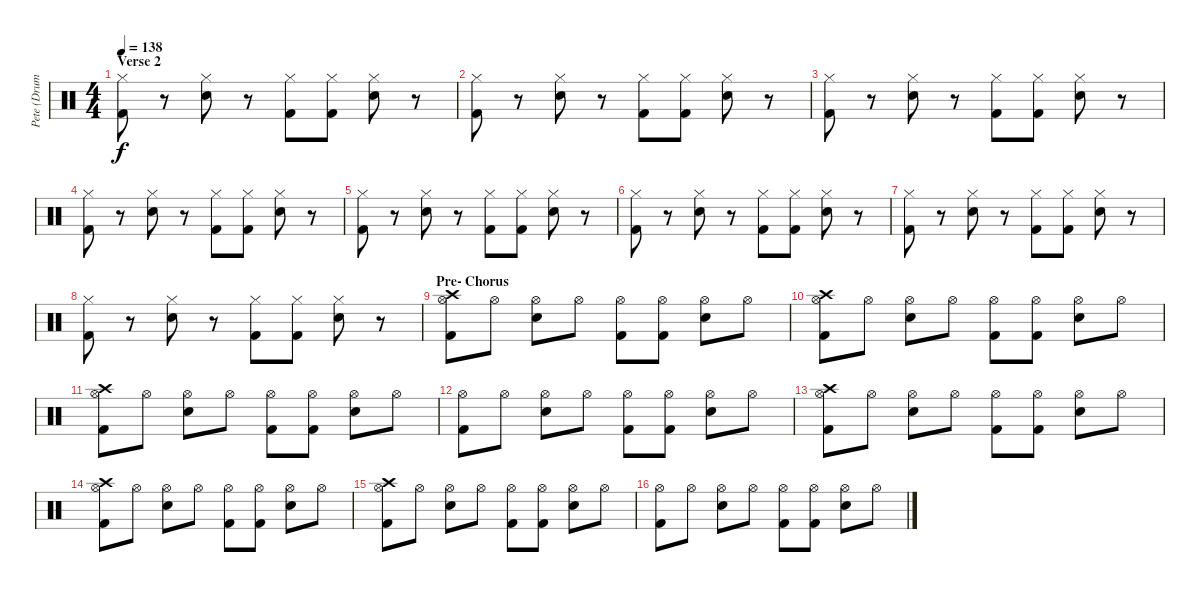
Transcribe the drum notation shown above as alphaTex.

\track ("Pete (Drums)" "Pete (Drum") {instrument percussion}
\staff {score}
\articulation defaults
\ts (4 4)
\section ("" "Verse 2")
\tempo 138
\clef neutral
\ks c
("Hi-Hat (closed)" "Kick (hit) 2").8{dy f} r.8 ("Hi-Hat (closed)" "Snare (hit) 2").8 r.8 ("Hi-Hat (closed)" "Kick (hit) 2").8 ("Hi-Hat (closed)" "Kick (hit) 2").8 ("Hi-Hat (closed)" "Snare (hit) 2").8 r.8 |
("Hi-Hat (closed)" "Kick (hit) 2").8 r.8 ("Hi-Hat (closed)" "Snare (hit) 2").8 r.8 ("Hi-Hat (closed)" "Kick (hit) 2").8 ("Hi-Hat (closed)" "Kick (hit) 2").8 ("Hi-Hat (closed)" "Snare (hit) 2").8 r.8 |
("Hi-Hat (closed)" "Kick (hit) 2").8 r.8 ("Hi-Hat (closed)" "Snare (hit) 2").8 r.8 ("Hi-Hat (closed)" "Kick (hit) 2").8 ("Hi-Hat (closed)" "Kick (hit) 2").8 ("Hi-Hat (closed)" "Snare (hit) 2").8 r.8 |
("Hi-Hat (closed)" "Kick (hit) 2").8 r.8 ("Hi-Hat (closed)" "Snare (hit) 2").8 r.8 ("Hi-Hat (closed)" "Kick (hit) 2").8 ("Hi-Hat (closed)" "Kick (hit) 2").8 ("Hi-Hat (closed)" "Snare (hit) 2").8 r.8 |
("Hi-Hat (closed)" "Kick (hit) 2").8 r.8 ("Hi-Hat (closed)" "Snare (hit) 2").8 r.8 ("Hi-Hat (closed)" "Kick (hit) 2").8 ("Hi-Hat (closed)" "Kick (hit) 2").8 ("Hi-Hat (closed)" "Snare (hit) 2").8 r.8 |
("Hi-Hat (closed)" "Kick (hit) 2").8 r.8 ("Hi-Hat (closed)" "Snare (hit) 2").8 r.8 ("Hi-Hat (closed)" "Kick (hit) 2").8 ("Hi-Hat (closed)" "Kick (hit) 2").8 ("Hi-Hat (closed)" "Snare (hit) 2").8 r.8 |
("Hi-Hat (closed)" "Kick (hit) 2").8 r.8 ("Hi-Hat (closed)" "Snare (hit) 2").8 r.8 ("Hi-Hat (closed)" "Kick (hit) 2").8 ("Hi-Hat (closed)" "Kick (hit) 2").8 ("Hi-Hat (closed)" "Snare (hit) 2").8 r.8 |
("Hi-Hat (closed)" "Kick (hit) 2").8 r.8 ("Hi-Hat (closed)" "Snare (hit) 2").8 r.8 ("Hi-Hat (closed)" "Kick (hit) 2").8 ("Hi-Hat (closed)" "Kick (hit) 2").8 ("Hi-Hat (closed)" "Snare (hit) 2").8 r.8 |
\section ("" "Pre- Chorus")
("Hi-Hat (open)" "Crash high (hit)" "Kick (hit) 2").8 "Hi-Hat (open)".8 ("Hi-Hat (open)" "Snare (hit) 2").8 "Hi-Hat (open)".8 ("Hi-Hat (open)" "Kick (hit) 2").8 ("Hi-Hat (open)" "Kick (hit) 2").8 ("Hi-Hat (open)" "Snare (hit) 2").8 "Hi-Hat (open)".8 |
("Hi-Hat (open)" "Crash high (hit)" "Kick (hit) 2").8 "Hi-Hat (open)".8 ("Hi-Hat (open)" "Snare (hit) 2").8 "Hi-Hat (open)".8 ("Hi-Hat (open)" "Kick (hit) 2").8 ("Hi-Hat (open)" "Kick (hit) 2").8 ("Hi-Hat (open)" "Snare (hit) 2").8 "Hi-Hat (open)".8 |
("Hi-Hat (open)" "Crash high (hit)" "Kick (hit) 2").8 "Hi-Hat (open)".8 ("Hi-Hat (open)" "Snare (hit) 2").8 "Hi-Hat (open)".8 ("Hi-Hat (open)" "Kick (hit) 2").8 ("Hi-Hat (open)" "Kick (hit) 2").8 ("Hi-Hat (open)" "Snare (hit) 2").8 "Hi-Hat (open)".8 |
("Hi-Hat (open)" "Kick (hit) 2").8 "Hi-Hat (open)".8 ("Hi-Hat (open)" "Snare (hit) 2").8 "Hi-Hat (open)".8 ("Hi-Hat (open)" "Kick (hit) 2").8 ("Hi-Hat (open)" "Kick (hit) 2").8 ("Hi-Hat (open)" "Snare (hit) 2").8 "Hi-Hat (open)".8 |
("Hi-Hat (open)" "Crash high (hit)" "Kick (hit) 2").8 "Hi-Hat (open)".8 ("Hi-Hat (open)" "Snare (hit) 2").8 "Hi-Hat (open)".8 ("Hi-Hat (open)" "Kick (hit) 2").8 ("Hi-Hat (open)" "Kick (hit) 2").8 ("Hi-Hat (open)" "Snare (hit) 2").8 "Hi-Hat (open)".8 |
("Hi-Hat (open)" "Crash high (hit)" "Kick (hit) 2").8 "Hi-Hat (open)".8 ("Hi-Hat (open)" "Snare (hit) 2").8 "Hi-Hat (open)".8 ("Hi-Hat (open)" "Kick (hit) 2").8 ("Hi-Hat (open)" "Kick (hit) 2").8 ("Hi-Hat (open)" "Snare (hit) 2").8 "Hi-Hat (open)".8 |
("Hi-Hat (open)" "Crash high (hit)" "Kick (hit) 2").8 "Hi-Hat (open)".8 ("Hi-Hat (open)" "Snare (hit) 2").8 "Hi-Hat (open)".8 ("Hi-Hat (open)" "Kick (hit) 2").8 ("Hi-Hat (open)" "Kick (hit) 2").8 ("Hi-Hat (open)" "Snare (hit) 2").8 "Hi-Hat (open)".8 |
("Hi-Hat (open)" "Kick (hit) 2").8 "Hi-Hat (open)".8 ("Hi-Hat (open)" "Snare (hit) 2").8 "Hi-Hat (open)".8 ("Hi-Hat (open)" "Kick (hit) 2").8 ("Hi-Hat (open)" "Kick (hit) 2").8 ("Hi-Hat (open)" "Snare (hit) 2").8 "Hi-Hat (open)".8
